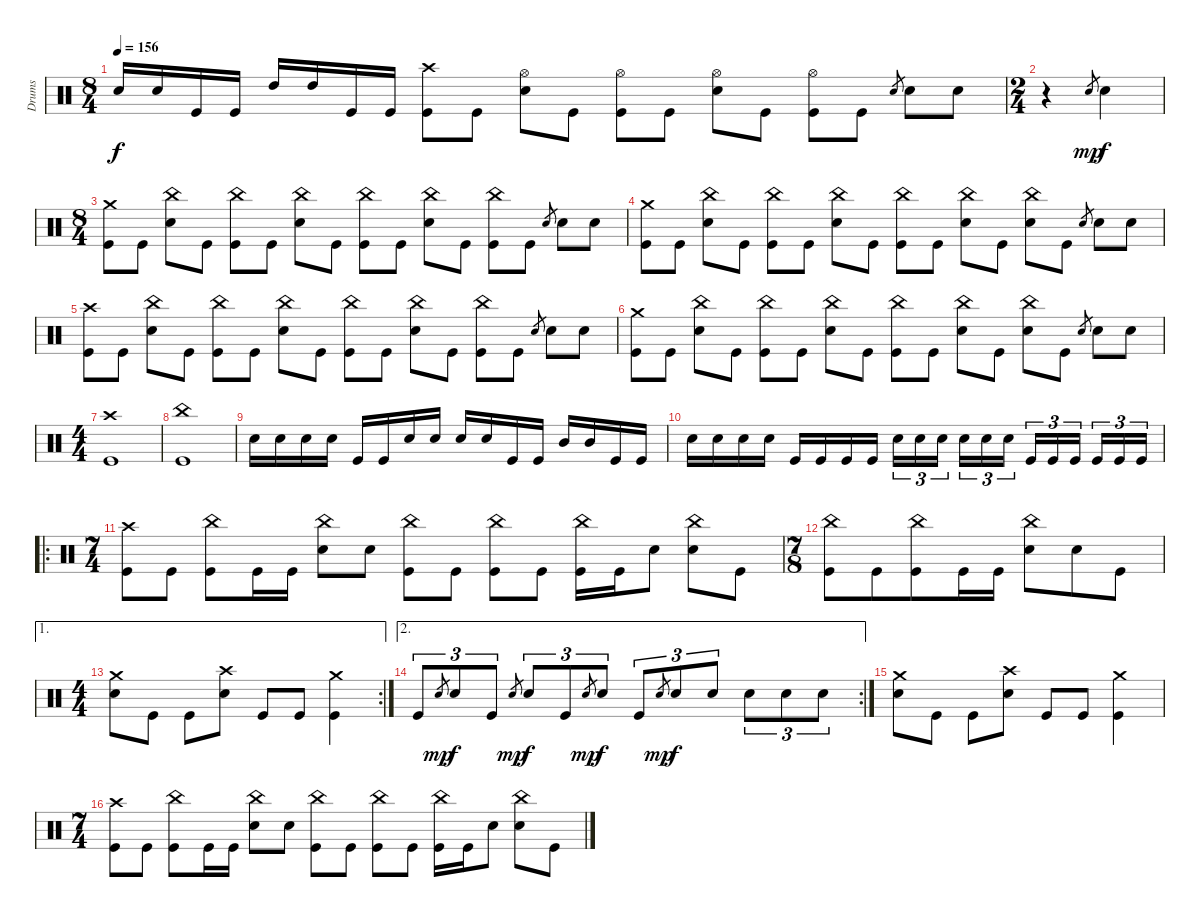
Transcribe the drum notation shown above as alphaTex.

\track ("Drums" "Drums") {instrument percussion}
\staff {score}
\articulation defaults
\ts (8 4)
\tempo 156
\clef neutral
\ks c "Electric Snare (hit)".16{dy f} "Electric Snare (hit)".16 "Kick (hit)".16 "Kick (hit)".16 "High Tom (hit)".16 "High Tom (hit)".16 "Kick (hit)".16 "Kick (hit)".16
("Crash high (hit)" "Kick (hit)").8 "Kick (hit)".8 ("Hi-Hat (open)" "Electric Snare (hit)").8 "Kick (hit)".8 ("Hi-Hat (open)" "Kick (hit)").8 "Kick (hit)".8 ("Hi-Hat (open)" "Electric Snare (hit)").8 "Kick (hit)".8 ("Hi-Hat (open)" "Kick (hit)").8 "Kick (hit)".8 "Electric Snare (hit)".8{gr} "Electric Snare (hit)".8 "Electric Snare (hit)".8 |
\ts (2 4)
r.4 "Electric Snare (hit)".8{gr dy mp} "Electric Snare (hit)".4{dy f} |
\ts (8 4)
("Crash medium (hit)" "Kick (hit)").8 "Kick (hit)".8 ("China (hit)" "Electric Snare (hit)").8 "Kick (hit)".8 ("China (hit)" "Kick (hit)").8 "Kick (hit)".8 ("China (hit)" "Electric Snare (hit)").8 "Kick (hit)".8 ("China (hit)" "Kick (hit)").8 "Kick (hit)".8 ("China (hit)" "Electric Snare (hit)").8 "Kick (hit)".8 ("China (hit)" "Kick (hit)").8 "Kick (hit)".8 "Electric Snare (hit)".8{gr} "Electric Snare (hit)".8 "Electric Snare (hit)".8 |
("Crash medium (hit)" "Kick (hit)").8 "Kick (hit)".8 ("China (hit)" "Electric Snare (hit)").8 "Kick (hit)".8 ("China (hit)" "Kick (hit)").8 "Kick (hit)".8 ("China (hit)" "Electric Snare (hit)").8 "Kick (hit)".8 ("China (hit)" "Kick (hit)").8 "Kick (hit)".8 ("China (hit)" "Electric Snare (hit)").8 "Kick (hit)".8 ("China (hit)" "Electric Snare (hit)").8 "Kick (hit)".8 "Electric Snare (hit)".8{gr} "Electric Snare (hit)".8 "Electric Snare (hit)".8 |
("Crash high (hit)" "Kick (hit)").8 "Kick (hit)".8 ("China (hit)" "Electric Snare (hit)").8 "Kick (hit)".8 ("China (hit)" "Kick (hit)").8 "Kick (hit)".8 ("China (hit)" "Electric Snare (hit)").8 "Kick (hit)".8 ("China (hit)" "Kick (hit)").8 "Kick (hit)".8 ("China (hit)" "Electric Snare (hit)").8 "Kick (hit)".8 ("China (hit)" "Kick (hit)").8 "Kick (hit)".8 "Electric Snare (hit)".8{gr} "Electric Snare (hit)".8 "Electric Snare (hit)".8 |
("Crash medium (hit)" "Kick (hit)").8 "Kick (hit)".8 ("China (hit)" "Electric Snare (hit)").8 "Kick (hit)".8 ("China (hit)" "Kick (hit)").8 "Kick (hit)".8 ("China (hit)" "Electric Snare (hit)").8 "Kick (hit)".8 ("China (hit)" "Kick (hit)").8 "Kick (hit)".8 ("China (hit)" "Electric Snare (hit)").8 "Kick (hit)".8 ("China (hit)" "Electric Snare (hit)").8 "Kick (hit)".8 "Electric Snare (hit)".8{gr} "Electric Snare (hit)".8 "Electric Snare (hit)".8 |
\ts (4 4)
("Crash high (hit)" "Kick (hit)").1 |
("China (hit)" "Kick (hit)").1 |
"Electric Snare (hit)".16 "Electric Snare (hit)".16 "Electric Snare (hit)".16 "Electric Snare (hit)".16 "Kick (hit)".16 "Kick (hit)".16 "Electric Snare (hit)".16 "Electric Snare (hit)".16 "Electric Snare (hit)".16 "Electric Snare (hit)".16 "Kick (hit)".16 "Kick (hit)".16 "Mid Tom (hit)".16 "Mid Tom (hit)".16 "Kick (hit)".16 "Kick (hit)".16 |
"Electric Snare (hit)".16 "Electric Snare (hit)".16 "Electric Snare (hit)".16 "Electric Snare (hit)".16 "Kick (hit)".16 "Kick (hit)".16 "Kick (hit)".16 "Kick (hit)".16 "Electric Snare (hit)".16{tu (3 2)} "Electric Snare (hit)".16{tu (3 2)} "Electric Snare (hit)".16{tu (3 2) beam splitsecondary} "Electric Snare (hit)".16{tu (3 2)} "Electric Snare (hit)".16{tu (3 2)} "Electric Snare (hit)".16{tu (3 2)} "Kick (hit)".16{tu (3 2)} "Kick (hit)".16{tu (3 2)} "Kick (hit)".16{tu (3 2) beam splitsecondary} "Kick (hit)".16{tu (3 2)} "Kick (hit)".16{tu (3 2)} "Kick (hit)".16{tu (3 2)} |
\ro
\ts (7 4)
("Crash high (hit)" "Kick (hit)").8 "Kick (hit)".8 ("China (hit)" "Kick (hit)").8 "Kick (hit)".16 "Kick (hit)".16 ("China (hit)" "Electric Snare (hit)").8 "Electric Snare (hit)".8 ("China (hit)" "Kick (hit)").8 "Kick (hit)".8 ("China (hit)" "Kick (hit)").8 "Kick (hit)".8 ("China (hit)" "Kick (hit)").16 "Kick (hit)".16 "Electric Snare (hit)".8 ("China (hit)" "Electric Snare (hit)").8 "Kick (hit)".8 |
\ts (7 8)
("China (hit)" "Kick (hit)").8 "Kick (hit)".8 ("China (hit)" "Kick (hit)").8 "Kick (hit)".16 "Kick (hit)".16 ("China (hit)" "Electric Snare (hit)").8 "Electric Snare (hit)".8 "Kick (hit)".8 |
\ae 1
\rc 2
\ts (4 4)
("Crash medium (hit)" "Electric Snare (hit)").8 "Kick (hit)".8 "Kick (hit)".8 ("Crash high (hit)" "Electric Snare (hit)").8 "Kick (hit)".8 "Kick (hit)".8 ("Crash medium (hit)" "Kick (hit)").4 |
\ae 2
\rc 2 "Kick (hit)".8{tu (3 2)} "Electric Snare (hit)".8{gr dy mp} "Electric Snare (hit)".8{tu (3 2) dy f} "Kick (hit)".8{tu (3 2)} "Electric Snare (hit)".8{gr dy mp} "Electric Snare (hit)".8{tu (3 2) dy f} "Kick (hit)".8{tu (3 2)} "Electric Snare (hit)".8{gr dy mp} "Electric Snare (hit)".8{tu (3 2) dy f} "Kick (hit)".8{tu (3 2)} "Electric Snare (hit)".8{gr dy mp} "Electric Snare (hit)".8{tu (3 2) dy f} "Electric Snare (hit)".8{tu (3 2)} "Electric Snare (hit)".8{tu (3 2)} "Electric Snare (hit)".8{tu (3 2)} "Electric Snare (hit)".8{tu (3 2)}
|
("Crash medium (hit)" "Electric Snare (hit)").8 "Kick (hit)".8 "Kick (hit)".8 ("Crash high (hit)" "Electric Snare (hit)").8 "Kick (hit)".8 "Kick (hit)".8 ("Crash medium (hit)" "Kick (hit)").4 |
\ts (7 4)
("Crash high (hit)" "Kick (hit)").8 "Kick (hit)".8 ("China (hit)" "Kick (hit)").8 "Kick (hit)".16 "Kick (hit)".16 ("China (hit)" "Electric Snare (hit)").8 "Electric Snare (hit)".8 ("China (hit)" "Kick (hit)").8 "Kick (hit)".8 ("China (hit)" "Kick (hit)").8 "Kick (hit)".8 ("China (hit)" "Kick (hit)").16 "Kick (hit)".16 "Electric Snare (hit)".8 ("China (hit)" "Electric Snare (hit)").8 "Kick (hit)".8
